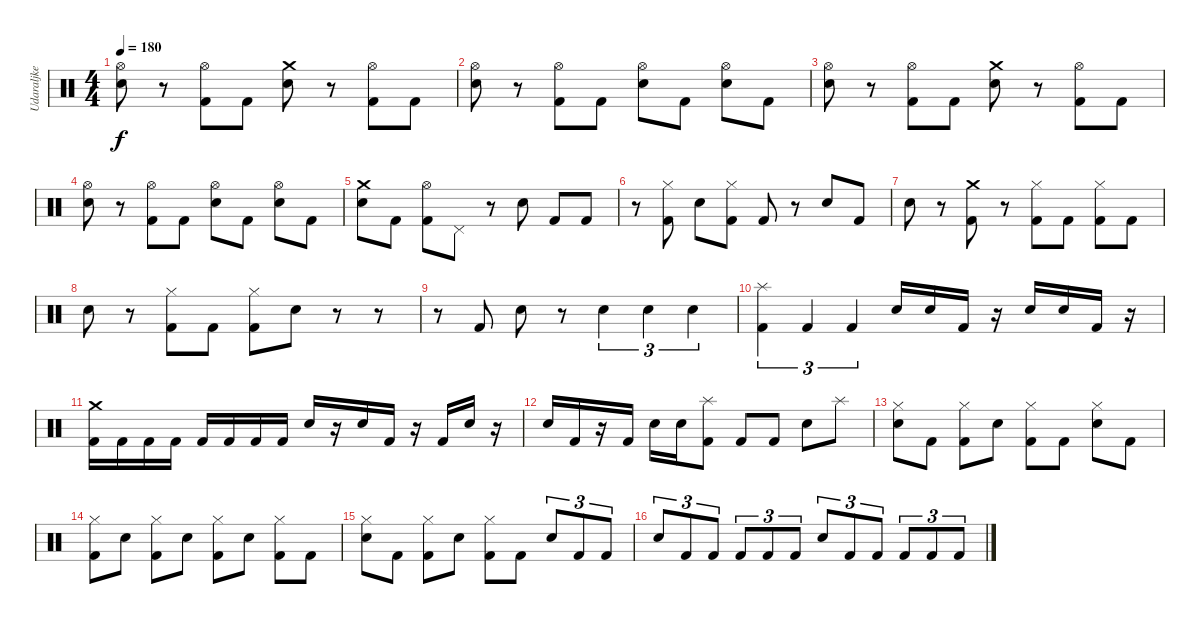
\track ("Udaraljke" "Udaraljke") {instrument percussion}
\staff {score}
\articulation defaults
\ts (4 4)
\tempo 180
\clef neutral
\ks c
("Snare (hit) 2" "Hi-Hat (open)").8{dy f} r.8 ("Kick (hit) 2" "Hi-Hat (open)").8 "Kick (hit) 2".8 ("Snare (hit) 2" "Crash medium (hit)").8 r.8 ("Kick (hit) 2" "Hi-Hat (open)").8 "Kick (hit) 2".8 |
("Snare (hit) 2" "Hi-Hat (open)").8 r.8 ("Kick (hit) 2" "Hi-Hat (open)").8 "Kick (hit) 2".8 ("Snare (hit) 2" "Hi-Hat (open)").8 "Kick (hit) 2".8 ("Snare (hit) 2" "Hi-Hat (open)").8 "Kick (hit) 2".8 |
("Snare (hit) 2" "Hi-Hat (open)").8 r.8 ("Kick (hit) 2" "Hi-Hat (open)").8 "Kick (hit) 2".8 ("Snare (hit) 2" "Crash medium (hit)").8 r.8 ("Kick (hit) 2" "Hi-Hat (open)").8 "Kick (hit) 2".8 |
("Snare (hit) 2" "Hi-Hat (open)").8 r.8 ("Kick (hit) 2" "Hi-Hat (open)").8 "Kick (hit) 2".8 ("Snare (hit) 2" "Hi-Hat (open)").8 "Kick (hit) 2".8 ("Snare (hit) 2" "Hi-Hat (open)").8 "Kick (hit) 2".8 |
("Snare (hit) 2" "Crash medium (hit)").8 "Kick (hit) 2".8 ("Kick (hit) 2" "Hi-Hat (open)").8 "Pedal Hi-Hat (hit)".8 r.8 "Snare (hit) 2".8 "Kick (hit) 2".8 "Kick (hit) 2".8 |
r.8 ("Kick (hit) 2" "Hi-Hat (closed)").8 "Snare (hit) 2".8 ("Kick (hit) 2" "Hi-Hat (closed)").8 "Kick (hit) 2".8 r.8 "Snare (hit) 2".8 "Kick (hit) 2".8 |
"Snare (hit) 2".8 r.8 ("Kick (hit) 2" "Crash medium (hit)").8 r.8 ("Kick (hit) 2" "Hi-Hat (closed)").8 "Kick (hit) 2".8 ("Kick (hit) 2" "Hi-Hat (closed)").8 "Kick (hit) 2".8 |
"Snare (hit) 2".8 r.8 ("Kick (hit) 2" "Hi-Hat (closed)").8 "Kick (hit) 2".8 ("Kick (hit) 2" "Hi-Hat (closed)").8 "Snare (hit) 2".8 r.8 r.8 |
r.8 "Kick (hit) 2".8 "Snare (hit) 2".8 r.8 "Snare (hit) 2".4{tu (3 2)} "Snare (hit) 2".4{tu (3 2)} "Snare (hit) 2".4{tu (3 2)} |
("Kick (hit) 2" "Splash (hit)").4{tu (3 2)} "Kick (hit) 2".4{tu (3 2)} "Kick (hit) 2".4{tu (3 2)} "Snare (hit) 2".16 "Snare (hit) 2".16 "Kick (hit) 2".16 r.16 "Snare (hit) 2".16 "Snare (hit) 2".16 "Kick (hit) 2".16 r.16 |
("Crash medium (hit)" "Kick (hit) 2").16 "Kick (hit) 2".16 "Kick (hit) 2".16 "Kick (hit) 2".16 "Kick (hit) 2".16 "Kick (hit) 2".16 "Kick (hit) 2".16 "Kick (hit) 2".16 "Snare (hit) 2".16 r.16 "Snare (hit) 2".16 "Kick (hit) 2".16 r.16 "Kick (hit) 2".16 "Snare (hit) 2".16 r.16 |
"Snare (hit) 2".16 "Kick (hit) 2".16 r.16 "Kick (hit) 2".16 "Snare (hit) 2".16 "Snare (hit) 2".16 ("Kick (hit) 2" "Splash (hit)").8 "Kick (hit) 2".8 "Kick (hit) 2".8 "Snare (hit) 2".8 "Splash (hit)".8 |
("Snare (hit) 2" "Hi-Hat (closed)").8 "Kick (hit) 2".8 ("Kick (hit) 2" "Hi-Hat (closed)").8 "Snare (hit) 2".8 ("Kick (hit) 2" "Hi-Hat (closed)").8 "Kick (hit) 2".8 ("Snare (hit) 2" "Hi-Hat (closed)").8 "Kick (hit) 2".8 |
("Kick (hit) 2" "Hi-Hat (closed)").8 "Snare (hit) 2".8 ("Kick (hit) 2" "Hi-Hat (closed)").8 "Snare (hit) 2".8 ("Kick (hit) 2" "Hi-Hat (closed)").8 "Snare (hit) 2".8 ("Kick (hit) 2" "Hi-Hat (closed)").8 "Kick (hit) 2".8 |
("Snare (hit) 2" "Hi-Hat (closed)").8 "Kick (hit) 2".8 ("Kick (hit) 2" "Hi-Hat (closed)").8 "Snare (hit) 2".8 ("Kick (hit) 2" "Hi-Hat (closed)").8 "Kick (hit) 2".8 "Snare (hit) 2".8{tu (3 2)} "Kick (hit) 2".8{tu (3 2)} "Kick (hit) 2".8{tu (3 2)} |
"Snare (hit) 2".8{tu (3 2)} "Kick (hit) 2".8{tu (3 2)} "Kick (hit) 2".8{tu (3 2)} "Kick (hit) 2".8{tu (3 2)} "Kick (hit) 2".8{tu (3 2)} "Kick (hit) 2".8{tu (3 2)} "Snare (hit) 2".8{tu (3 2)} "Kick (hit) 2".8{tu (3 2)} "Kick (hit) 2".8{tu (3 2)} "Kick (hit) 2".8{tu (3 2)} "Kick (hit) 2".8{tu (3 2)} "Kick (hit) 2".8{tu (3 2)}
